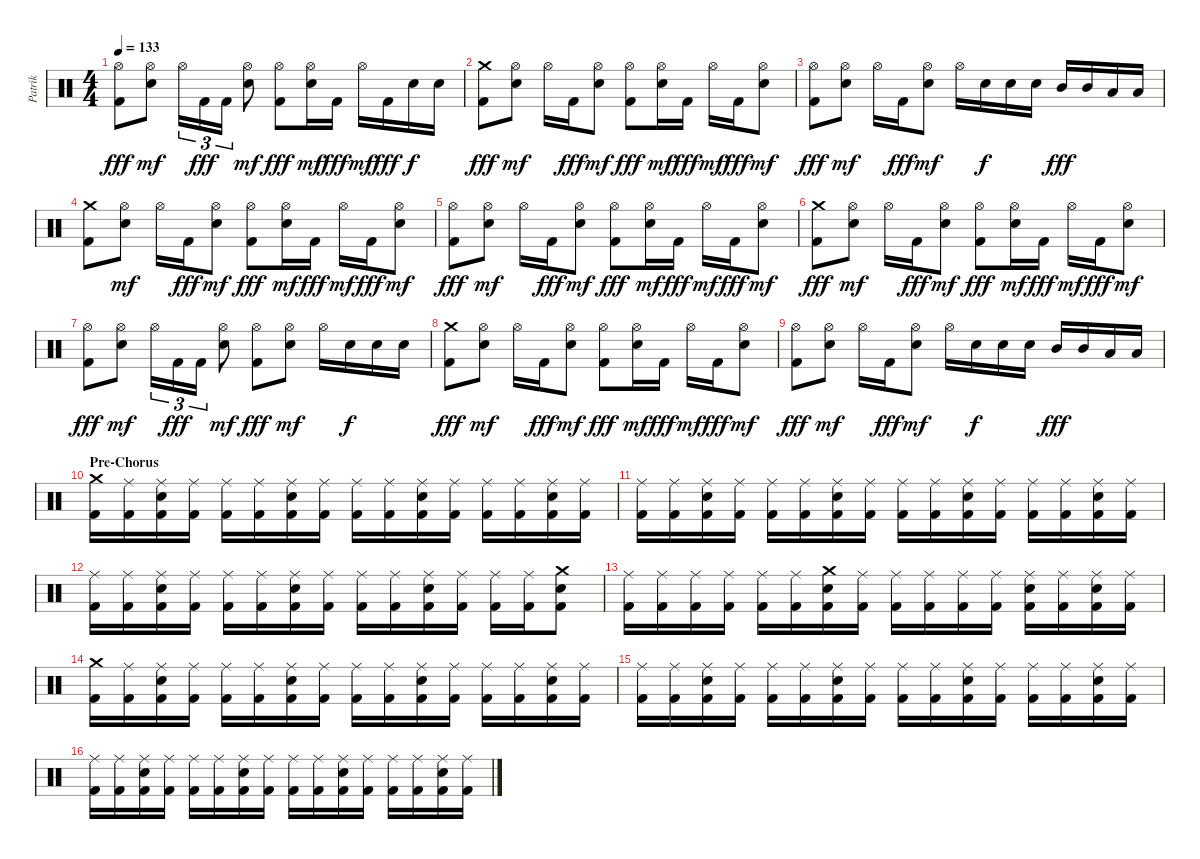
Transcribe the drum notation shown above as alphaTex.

\track ("Patrik" "Patrik") {instrument percussion}
\staff {score}
\articulation defaults
\ts (4 4)
\tempo 133
\clef neutral
\ks c
("Hi-Hat (open)" "Kick (hit) 2").8{dy fff} ("Hi-Hat (open)" "Electric Snare (hit)").8{dy mf} "Hi-Hat (open)".16{tu (3 2)} "Kick (hit) 2".16{tu (3 2) dy fff} "Kick (hit) 2".16{tu (3 2)} ("Hi-Hat (open)" "Electric Snare (hit)").8{dy mf} ("Hi-Hat (open)" "Kick (hit) 2").8{dy fff} ("Hi-Hat (open)" "Electric Snare (hit)").16{dy mf} "Kick (hit) 2".16{dy fff} "Hi-Hat (open)".16{dy mf} "Kick (hit) 2".16{dy fff} "Electric Snare (hit)".16{dy f} "Electric Snare (hit)".16 |
("Crash medium (hit)" "Kick (hit) 2").8{dy fff} ("Hi-Hat (open)" "Electric Snare (hit)").8{dy mf} "Hi-Hat (open)".16 "Kick (hit) 2".16{dy fff} ("Hi-Hat (open)" "Electric Snare (hit)").8{dy mf} ("Hi-Hat (open)" "Kick (hit) 2").8{dy fff} ("Hi-Hat (open)" "Electric Snare (hit)").16{dy mf} "Kick (hit) 2".16{dy fff} "Hi-Hat (open)".16{dy mf} "Kick (hit) 2".16{dy fff} ("Hi-Hat (open)" "Electric Snare (hit)").8{dy mf} |
("Hi-Hat (open)" "Kick (hit) 2").8{dy fff} ("Hi-Hat (open)" "Electric Snare (hit)").8{dy mf} "Hi-Hat (open)".16 "Kick (hit) 2".16{dy fff} ("Hi-Hat (open)" "Electric Snare (hit)").8{dy mf} "Hi-Hat (open)".16 "Electric Snare (hit)".16{dy f} "Electric Snare (hit)".16 "Electric Snare (hit)".16 "Mid Tom (hit)".16{dy fff} "Mid Tom (hit)".16 "Low Tom (hit)".16 "Low Tom (hit)".16 |
("Crash medium (hit)" "Kick (hit) 2").8 ("Hi-Hat (open)" "Electric Snare (hit)").8{dy mf} "Hi-Hat (open)".16 "Kick (hit) 2".16{dy fff} ("Hi-Hat (open)" "Electric Snare (hit)").8{dy mf} ("Hi-Hat (open)" "Kick (hit) 2").8{dy fff} ("Hi-Hat (open)" "Electric Snare (hit)").16{dy mf} "Kick (hit) 2".16{dy fff} "Hi-Hat (open)".16{dy mf} "Kick (hit) 2".16{dy fff} ("Hi-Hat (open)" "Electric Snare (hit)").8{dy mf} |
("Hi-Hat (open)" "Kick (hit) 2").8{dy fff} ("Hi-Hat (open)" "Electric Snare (hit)").8{dy mf} "Hi-Hat (open)".16 "Kick (hit) 2".16{dy fff} ("Hi-Hat (open)" "Electric Snare (hit)").8{dy mf} ("Hi-Hat (open)" "Kick (hit) 2").8{dy fff} ("Hi-Hat (open)" "Electric Snare (hit)").16{dy mf} "Kick (hit) 2".16{dy fff} "Hi-Hat (open)".16{dy mf} "Kick (hit) 2".16{dy fff} ("Hi-Hat (open)" "Electric Snare (hit)").8{dy mf} |
("Crash medium (hit)" "Kick (hit) 2").8{dy fff} ("Hi-Hat (open)" "Electric Snare (hit)").8{dy mf} "Hi-Hat (open)".16 "Kick (hit) 2".16{dy fff} ("Hi-Hat (open)" "Electric Snare (hit)").8{dy mf} ("Hi-Hat (open)" "Kick (hit) 2").8{dy fff} ("Hi-Hat (open)" "Electric Snare (hit)").16{dy mf} "Kick (hit) 2".16{dy fff} "Hi-Hat (open)".16{dy mf} "Kick (hit) 2".16{dy fff} ("Hi-Hat (open)" "Electric Snare (hit)").8{dy mf} |
("Hi-Hat (open)" "Kick (hit) 2").8{dy fff} ("Hi-Hat (open)" "Electric Snare (hit)").8{dy mf} "Hi-Hat (open)".16{tu (3 2)} "Kick (hit) 2".16{tu (3 2) dy fff} "Kick (hit) 2".16{tu (3 2)} ("Hi-Hat (open)" "Electric Snare (hit)").8{dy mf} ("Hi-Hat (open)" "Kick (hit) 2").8{dy fff} ("Hi-Hat (open)" "Electric Snare (hit)").8{dy mf} "Hi-Hat (open)".16 "Electric Snare (hit)".16{dy f} "Electric Snare (hit)".16 "Electric Snare (hit)".16 |
("Crash medium (hit)" "Kick (hit) 2").8{dy fff} ("Hi-Hat (open)" "Electric Snare (hit)").8{dy mf} "Hi-Hat (open)".16 "Kick (hit) 2".16{dy fff} ("Hi-Hat (open)" "Electric Snare (hit)").8{dy mf} ("Hi-Hat (open)" "Kick (hit) 2").8{dy fff} ("Hi-Hat (open)" "Electric Snare (hit)").16{dy mf} "Kick (hit) 2".16{dy fff} "Hi-Hat (open)".16{dy mf} "Kick (hit) 2".16{dy fff} ("Hi-Hat (open)" "Electric Snare (hit)").8{dy mf} |
("Hi-Hat (open)" "Kick (hit) 2").8{dy fff} ("Hi-Hat (open)" "Electric Snare (hit)").8{dy mf} "Hi-Hat (open)".16 "Kick (hit) 2".16{dy fff} ("Hi-Hat (open)" "Electric Snare (hit)").8{dy mf} "Hi-Hat (open)".16 "Electric Snare (hit)".16{dy f} "Electric Snare (hit)".16 "Electric Snare (hit)".16 "Mid Tom (hit)".16{dy fff} "Mid Tom (hit)".16 "Low Tom (hit)".16 "Low Tom (hit)".16 |
\section ("" "Pre-Chorus")
("Crash medium (hit)" "Kick (hit) 2").16 ("Ride (middle)" "Kick (hit) 2").16 ("Ride (middle)" "Electric Snare (hit)" "Kick (hit) 2").16 ("Ride (middle)" "Kick (hit) 2").16 ("Ride (middle)" "Kick (hit) 2").16 ("Ride (middle)" "Kick (hit) 2").16 ("Ride (middle)" "Electric Snare (hit)" "Kick (hit) 2").16 ("Ride (middle)" "Kick (hit) 2").16 ("Ride (middle)" "Kick (hit) 2").16 ("Ride (middle)" "Kick (hit) 2").16 ("Ride (middle)" "Electric Snare (hit)" "Kick (hit) 2").16 ("Ride (middle)" "Kick (hit) 2").16 ("Ride (middle)" "Kick (hit) 2").16 ("Ride (middle)" "Kick (hit) 2").16 ("Ride (middle)" "Electric Snare (hit)" "Kick (hit) 2").16 ("Ride (middle)" "Kick (hit) 2").16 |
("Ride (middle)" "Kick (hit) 2").16 ("Ride (middle)" "Kick (hit) 2").16 ("Ride (middle)" "Electric Snare (hit)" "Kick (hit) 2").16 ("Ride (middle)" "Kick (hit) 2").16 ("Ride (middle)" "Kick (hit) 2").16 ("Ride (middle)" "Kick (hit) 2").16 ("Ride (middle)" "Electric Snare (hit)" "Kick (hit) 2").16 ("Ride (middle)" "Kick (hit) 2").16 ("Ride (middle)" "Kick (hit) 2").16 ("Ride (middle)" "Kick (hit) 2").16 ("Ride (middle)" "Electric Snare (hit)" "Kick (hit) 2").16 ("Ride (middle)" "Kick (hit) 2").16 ("Ride (middle)" "Kick (hit) 2").16 ("Ride (middle)" "Kick (hit) 2").16 ("Ride (middle)" "Electric Snare (hit)" "Kick (hit) 2").16 ("Ride (middle)" "Kick (hit) 2").16 |
("Ride (middle)" "Kick (hit) 2").16 ("Ride (middle)" "Kick (hit) 2").16 ("Ride (middle)" "Electric Snare (hit)" "Kick (hit) 2").16 ("Ride (middle)" "Kick (hit) 2").16 ("Ride (middle)" "Kick (hit) 2").16 ("Ride (middle)" "Kick (hit) 2").16 ("Ride (middle)" "Electric Snare (hit)" "Kick (hit) 2").16 ("Ride (middle)" "Kick (hit) 2").16 ("Ride (middle)" "Kick (hit) 2").16 ("Ride (middle)" "Kick (hit) 2").16 ("Ride (middle)" "Electric Snare (hit)" "Kick (hit) 2").16 ("Ride (middle)" "Kick (hit) 2").16 ("Ride (middle)" "Kick (hit) 2").16 ("Ride (middle)" "Kick (hit) 2").16 ("Crash medium (hit)" "Electric Snare (hit)" "Kick (hit) 2").8 |
("Ride (middle)" "Kick (hit) 2").16 ("Ride (middle)" "Kick (hit) 2").16 ("Ride (middle)" "Kick (hit) 2").16 ("Ride (middle)" "Kick (hit) 2").16 ("Ride (middle)" "Kick (hit) 2").16 ("Ride (middle)" "Kick (hit) 2").16 ("Crash medium (hit)" "Electric Snare (hit)" "Kick (hit) 2").16 ("Ride (middle)" "Kick (hit) 2").16 ("Ride (middle)" "Kick (hit) 2").16 ("Ride (middle)" "Kick (hit) 2").16 ("Ride (middle)" "Kick (hit) 2").16 ("Ride (middle)" "Kick (hit) 2").16 ("Ride (middle)" "Electric Snare (hit)" "Kick (hit) 2").16 ("Ride (middle)" "Kick (hit) 2").16 ("Ride (middle)" "Electric Snare (hit)" "Kick (hit) 2").16 ("Ride (middle)" "Kick (hit) 2").16 |
("Crash medium (hit)" "Kick (hit) 2").16 ("Ride (middle)" "Kick (hit) 2").16 ("Ride (middle)" "Electric Snare (hit)" "Kick (hit) 2").16 ("Ride (middle)" "Kick (hit) 2").16 ("Ride (middle)" "Kick (hit) 2").16 ("Ride (middle)" "Kick (hit) 2").16 ("Ride (middle)" "Electric Snare (hit)" "Kick (hit) 2").16 ("Ride (middle)" "Kick (hit) 2").16 ("Ride (middle)" "Kick (hit) 2").16 ("Ride (middle)" "Kick (hit) 2").16 ("Ride (middle)" "Electric Snare (hit)" "Kick (hit) 2").16 ("Ride (middle)" "Kick (hit) 2").16 ("Ride (middle)" "Kick (hit) 2").16 ("Ride (middle)" "Kick (hit) 2").16 ("Ride (middle)" "Electric Snare (hit)" "Kick (hit) 2").16 ("Ride (middle)" "Kick (hit) 2").16 |
("Ride (middle)" "Kick (hit) 2").16 ("Ride (middle)" "Kick (hit) 2").16 ("Ride (middle)" "Electric Snare (hit)" "Kick (hit) 2").16 ("Ride (middle)" "Kick (hit) 2").16 ("Ride (middle)" "Kick (hit) 2").16 ("Ride (middle)" "Kick (hit) 2").16 ("Ride (middle)" "Electric Snare (hit)" "Kick (hit) 2").16 ("Ride (middle)" "Kick (hit) 2").16 ("Ride (middle)" "Kick (hit) 2").16 ("Ride (middle)" "Kick (hit) 2").16 ("Ride (middle)" "Electric Snare (hit)" "Kick (hit) 2").16 ("Ride (middle)" "Kick (hit) 2").16 ("Ride (middle)" "Kick (hit) 2").16 ("Ride (middle)" "Kick (hit) 2").16 ("Ride (middle)" "Electric Snare (hit)" "Kick (hit) 2").16 ("Ride (middle)" "Kick (hit) 2").16 |
("Ride (middle)" "Kick (hit) 2").16 ("Ride (middle)" "Kick (hit) 2").16 ("Ride (middle)" "Electric Snare (hit)" "Kick (hit) 2").16 ("Ride (middle)" "Kick (hit) 2").16 ("Ride (middle)" "Kick (hit) 2").16 ("Ride (middle)" "Kick (hit) 2").16 ("Ride (middle)" "Electric Snare (hit)" "Kick (hit) 2").16 ("Ride (middle)" "Kick (hit) 2").16 ("Ride (middle)" "Kick (hit) 2").16 ("Ride (middle)" "Kick (hit) 2").16 ("Ride (middle)" "Electric Snare (hit)" "Kick (hit) 2").16 ("Ride (middle)" "Kick (hit) 2").16 ("Ride (middle)" "Kick (hit) 2").16 ("Ride (middle)" "Kick (hit) 2").16 ("Ride (middle)" "Electric Snare (hit)" "Kick (hit) 2").16 ("Ride (middle)" "Kick (hit) 2").16
